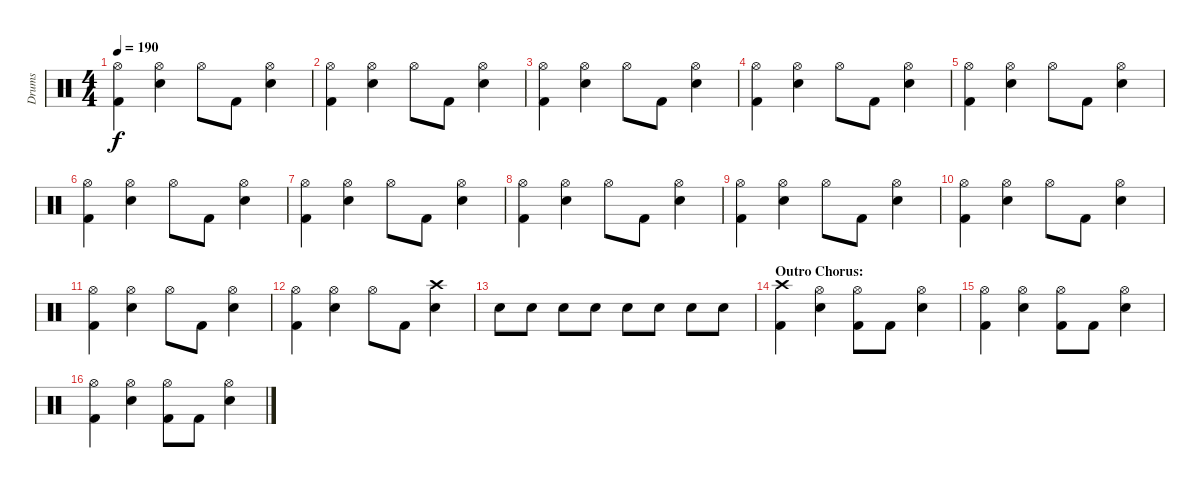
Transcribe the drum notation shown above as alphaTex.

\track ("Drums" "Drums") {instrument percussion}
\staff {score}
\articulation defaults
\ts (4 4)
\tempo 190
\clef neutral
\ks c
("Hi-Hat (open)" "Kick (hit) 2").4{dy f} ("Hi-Hat (open)" "Electric Snare (hit)").4 "Hi-Hat (open)".8 "Kick (hit) 2".8 ("Hi-Hat (open)" "Electric Snare (hit)").4 |
("Hi-Hat (open)" "Kick (hit) 2").4 ("Hi-Hat (open)" "Electric Snare (hit)").4 "Hi-Hat (open)".8 "Kick (hit) 2".8 ("Hi-Hat (open)" "Electric Snare (hit)").4 |
("Hi-Hat (open)" "Kick (hit) 2").4 ("Hi-Hat (open)" "Electric Snare (hit)").4 "Hi-Hat (open)".8 "Kick (hit) 2".8 ("Hi-Hat (open)" "Electric Snare (hit)").4 |
("Hi-Hat (open)" "Kick (hit) 2").4 ("Hi-Hat (open)" "Electric Snare (hit)").4 "Hi-Hat (open)".8 "Kick (hit) 2".8 ("Hi-Hat (open)" "Electric Snare (hit)").4 |
("Hi-Hat (open)" "Kick (hit) 2").4 ("Hi-Hat (open)" "Electric Snare (hit)").4 "Hi-Hat (open)".8 "Kick (hit) 2".8 ("Hi-Hat (open)" "Electric Snare (hit)").4 |
("Hi-Hat (open)" "Kick (hit) 2").4 ("Hi-Hat (open)" "Electric Snare (hit)").4 "Hi-Hat (open)".8 "Kick (hit) 2".8 ("Hi-Hat (open)" "Electric Snare (hit)").4 |
("Hi-Hat (open)" "Kick (hit) 2").4 ("Hi-Hat (open)" "Electric Snare (hit)").4 "Hi-Hat (open)".8 "Kick (hit) 2".8 ("Hi-Hat (open)" "Electric Snare (hit)").4 |
("Hi-Hat (open)" "Kick (hit) 2").4 ("Hi-Hat (open)" "Electric Snare (hit)").4 "Hi-Hat (open)".8 "Kick (hit) 2".8 ("Hi-Hat (open)" "Electric Snare (hit)").4 |
("Hi-Hat (open)" "Kick (hit) 2").4 ("Hi-Hat (open)" "Electric Snare (hit)").4 "Hi-Hat (open)".8 "Kick (hit) 2".8 ("Hi-Hat (open)" "Electric Snare (hit)").4 |
("Hi-Hat (open)" "Kick (hit) 2").4 ("Hi-Hat (open)" "Electric Snare (hit)").4 "Hi-Hat (open)".8 "Kick (hit) 2".8 ("Hi-Hat (open)" "Electric Snare (hit)").4 |
("Hi-Hat (open)" "Kick (hit) 2").4 ("Hi-Hat (open)" "Electric Snare (hit)").4 "Hi-Hat (open)".8 "Kick (hit) 2".8 ("Hi-Hat (open)" "Electric Snare (hit)").4 |
("Hi-Hat (open)" "Kick (hit) 2").4 ("Hi-Hat (open)" "Electric Snare (hit)").4 "Hi-Hat (open)".8 "Kick (hit) 2".8 ("Crash high (hit)" "Electric Snare (hit)").4 |
"Electric Snare (hit)".8 "Electric Snare (hit)".8 "Electric Snare (hit)".8 "Electric Snare (hit)".8 "Electric Snare (hit)".8 "Electric Snare (hit)".8 "Electric Snare (hit)".8 "Electric Snare (hit)".8 |
\section ("" "Outro Chorus:")
("Crash high (hit)" "Kick (hit) 2").4 ("Hi-Hat (open)" "Electric Snare (hit)").4 ("Hi-Hat (open)" "Kick (hit) 2").8 "Kick (hit) 2".8 ("Hi-Hat (open)" "Electric Snare (hit)").4 |
("Hi-Hat (open)" "Kick (hit) 2").4 ("Hi-Hat (open)" "Electric Snare (hit)").4 ("Hi-Hat (open)" "Kick (hit) 2").8 "Kick (hit) 2".8 ("Hi-Hat (open)" "Electric Snare (hit)").4 |
("Hi-Hat (open)" "Kick (hit) 2").4 ("Hi-Hat (open)" "Electric Snare (hit)").4 ("Hi-Hat (open)" "Kick (hit) 2").8 "Kick (hit) 2".8 ("Hi-Hat (open)" "Electric Snare (hit)").4
